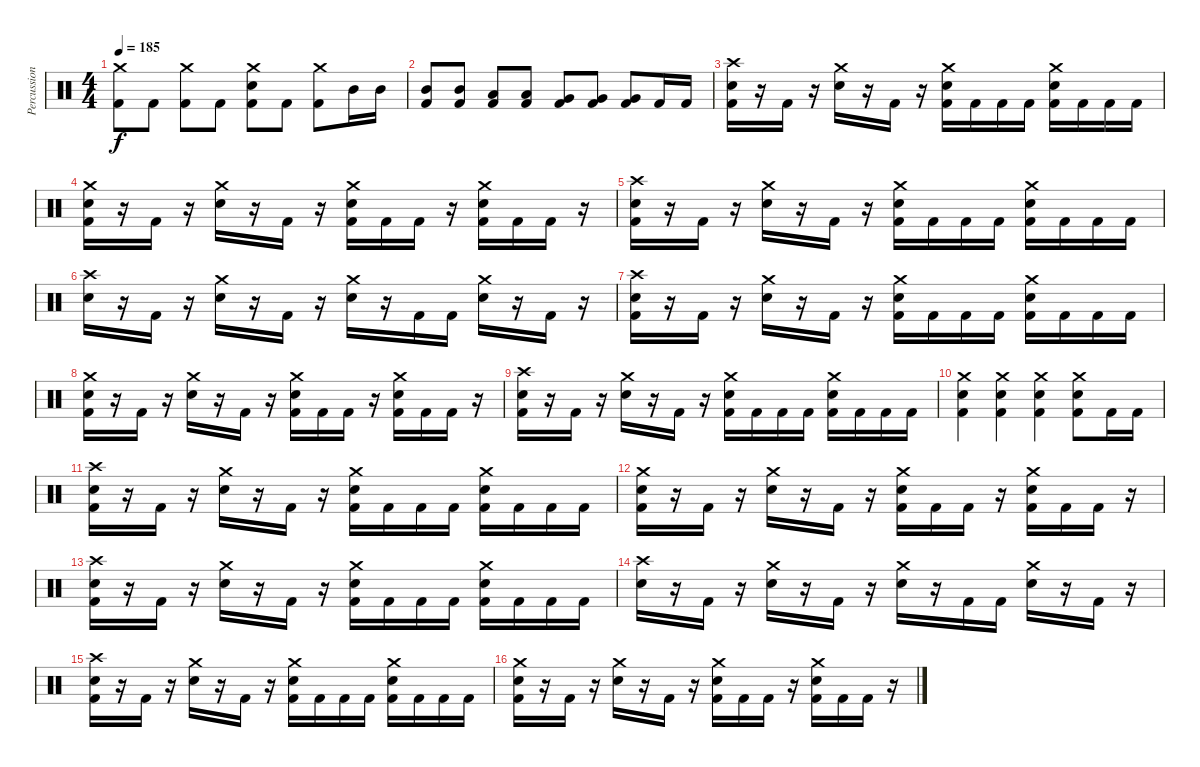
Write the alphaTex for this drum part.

\track ("Percussion" "Percussion") {instrument percussion}
\staff {score}
\articulation defaults
\ts (4 4)
\tempo 185
\clef neutral
\ks c
("Crash medium (hit)" "Kick (hit) 2").8{dy f} "Kick (hit) 2".8 ("Crash medium (hit)" "Kick (hit) 2").8 "Kick (hit) 2".8 ("Crash medium (hit)" "Snare (hit) 2" "Kick (hit) 2").8 "Kick (hit) 2".8 ("Crash medium (hit)" "Kick (hit) 2").8 "Mid Tom (hit)".16 "Mid Tom (hit)".16 |
("Mid Tom (hit)" "Kick (hit) 2").8 ("Mid Tom (hit)" "Kick (hit) 2").8 ("Low Tom (hit)" "Kick (hit) 2").8 ("Low Tom (hit)" "Kick (hit) 2").8 ("Very Low Tom (hit)" "Kick (hit) 2").8 ("Very Low Tom (hit)" "Kick (hit) 2").8 ("Very Low Tom (hit)" "Kick (hit) 2").8 "Kick (hit) 2".16 "Kick (hit) 2".16 |
("Crash high (hit)" "Snare (hit) 2" "Kick (hit) 2").16 r.16 "Kick (hit) 2".16 r.16 ("Crash medium (hit)" "Snare (hit) 2").16 r.16 "Kick (hit) 2".16 r.16 ("Crash medium (hit)" "Snare (hit) 2" "Kick (hit) 2").16 "Kick (hit) 2".16 "Kick (hit) 2".16 "Kick (hit) 2".16 ("Crash medium (hit)" "Snare (hit) 2" "Kick (hit) 2").16 "Kick (hit) 2".16 "Kick (hit) 2".16 "Kick (hit) 2".16 |
("Crash medium (hit)" "Snare (hit) 2" "Kick (hit) 2").16 r.16 "Kick (hit) 2".16 r.16 ("Crash medium (hit)" "Snare (hit) 2").16 r.16 "Kick (hit) 2".16 r.16 ("Crash medium (hit)" "Snare (hit) 2" "Kick (hit) 2").16 "Kick (hit) 2".16 "Kick (hit) 2".16 r.16 ("Crash medium (hit)" "Snare (hit) 2" "Kick (hit) 2").16 "Kick (hit) 2".16 "Kick (hit) 2".16 r.16 |
("Crash high (hit)" "Snare (hit) 2" "Kick (hit) 2").16 r.16 "Kick (hit) 2".16 r.16 ("Crash medium (hit)" "Snare (hit) 2").16 r.16 "Kick (hit) 2".16 r.16 ("Crash medium (hit)" "Snare (hit) 2" "Kick (hit) 2").16 "Kick (hit) 2".16 "Kick (hit) 2".16 "Kick (hit) 2".16 ("Crash medium (hit)" "Snare (hit) 2" "Kick (hit) 2").16 "Kick (hit) 2".16 "Kick (hit) 2".16 "Kick (hit) 2".16 |
("Crash high (hit)" "Snare (hit) 2").16 r.16 "Kick (hit) 2".16 r.16 ("Crash medium (hit)" "Snare (hit) 2").16 r.16 "Kick (hit) 2".16 r.16 ("Crash medium (hit)" "Snare (hit) 2").16 r.16 "Kick (hit) 2".16 "Kick (hit) 2".16 ("Crash medium (hit)" "Snare (hit) 2").16 r.16 "Kick (hit) 2".16 r.16 |
("Crash high (hit)" "Snare (hit) 2" "Kick (hit) 2").16 r.16 "Kick (hit) 2".16 r.16 ("Crash medium (hit)" "Snare (hit) 2").16 r.16 "Kick (hit) 2".16 r.16 ("Crash medium (hit)" "Snare (hit) 2" "Kick (hit) 2").16 "Kick (hit) 2".16 "Kick (hit) 2".16 "Kick (hit) 2".16 ("Crash medium (hit)" "Snare (hit) 2" "Kick (hit) 2").16 "Kick (hit) 2".16 "Kick (hit) 2".16 "Kick (hit) 2".16 |
("Crash medium (hit)" "Snare (hit) 2" "Kick (hit) 2").16 r.16 "Kick (hit) 2".16 r.16 ("Crash medium (hit)" "Snare (hit) 2").16 r.16 "Kick (hit) 2".16 r.16 ("Crash medium (hit)" "Snare (hit) 2" "Kick (hit) 2").16 "Kick (hit) 2".16 "Kick (hit) 2".16 r.16 ("Crash medium (hit)" "Snare (hit) 2" "Kick (hit) 2").16 "Kick (hit) 2".16 "Kick (hit) 2".16 r.16 |
("Crash high (hit)" "Snare (hit) 2" "Kick (hit) 2").16 r.16 "Kick (hit) 2".16 r.16 ("Crash medium (hit)" "Snare (hit) 2").16 r.16 "Kick (hit) 2".16 r.16 ("Crash medium (hit)" "Snare (hit) 2" "Kick (hit) 2").16 "Kick (hit) 2".16 "Kick (hit) 2".16 "Kick (hit) 2".16 ("Crash medium (hit)" "Snare (hit) 2" "Kick (hit) 2").16 "Kick (hit) 2".16 "Kick (hit) 2".16 "Kick (hit) 2".16 |
("Crash medium (hit)" "Snare (hit) 2" "Kick (hit) 2").4 ("Crash medium (hit)" "Snare (hit) 2" "Kick (hit) 2").4 ("Crash medium (hit)" "Snare (hit) 2" "Kick (hit) 2").4 ("Crash medium (hit)" "Snare (hit) 2" "Kick (hit) 2").8 "Kick (hit) 2".16 "Kick (hit) 2".16 |
("Crash high (hit)" "Snare (hit) 2" "Kick (hit) 2").16 r.16 "Kick (hit) 2".16 r.16 ("Crash medium (hit)" "Snare (hit) 2").16 r.16 "Kick (hit) 2".16 r.16 ("Crash medium (hit)" "Snare (hit) 2" "Kick (hit) 2").16 "Kick (hit) 2".16 "Kick (hit) 2".16 "Kick (hit) 2".16 ("Crash medium (hit)" "Snare (hit) 2" "Kick (hit) 2").16 "Kick (hit) 2".16 "Kick (hit) 2".16 "Kick (hit) 2".16 |
("Crash medium (hit)" "Snare (hit) 2" "Kick (hit) 2").16 r.16 "Kick (hit) 2".16 r.16 ("Crash medium (hit)" "Snare (hit) 2").16 r.16 "Kick (hit) 2".16 r.16 ("Crash medium (hit)" "Snare (hit) 2" "Kick (hit) 2").16 "Kick (hit) 2".16 "Kick (hit) 2".16 r.16 ("Crash medium (hit)" "Snare (hit) 2" "Kick (hit) 2").16 "Kick (hit) 2".16 "Kick (hit) 2".16 r.16 |
("Crash high (hit)" "Snare (hit) 2" "Kick (hit) 2").16 r.16 "Kick (hit) 2".16 r.16 ("Crash medium (hit)" "Snare (hit) 2").16 r.16 "Kick (hit) 2".16 r.16 ("Crash medium (hit)" "Snare (hit) 2" "Kick (hit) 2").16 "Kick (hit) 2".16 "Kick (hit) 2".16 "Kick (hit) 2".16 ("Crash medium (hit)" "Snare (hit) 2" "Kick (hit) 2").16 "Kick (hit) 2".16 "Kick (hit) 2".16 "Kick (hit) 2".16 |
("Crash high (hit)" "Snare (hit) 2").16 r.16 "Kick (hit) 2".16 r.16 ("Crash medium (hit)" "Snare (hit) 2").16 r.16 "Kick (hit) 2".16 r.16 ("Crash medium (hit)" "Snare (hit) 2").16 r.16 "Kick (hit) 2".16 "Kick (hit) 2".16 ("Crash medium (hit)" "Snare (hit) 2").16 r.16 "Kick (hit) 2".16 r.16 |
("Crash high (hit)" "Snare (hit) 2" "Kick (hit) 2").16 r.16 "Kick (hit) 2".16 r.16 ("Crash medium (hit)" "Snare (hit) 2").16 r.16 "Kick (hit) 2".16 r.16 ("Crash medium (hit)" "Snare (hit) 2" "Kick (hit) 2").16 "Kick (hit) 2".16 "Kick (hit) 2".16 "Kick (hit) 2".16 ("Crash medium (hit)" "Snare (hit) 2" "Kick (hit) 2").16 "Kick (hit) 2".16 "Kick (hit) 2".16 "Kick (hit) 2".16 |
("Crash medium (hit)" "Snare (hit) 2" "Kick (hit) 2").16 r.16 "Kick (hit) 2".16 r.16 ("Crash medium (hit)" "Snare (hit) 2").16 r.16 "Kick (hit) 2".16 r.16 ("Crash medium (hit)" "Snare (hit) 2" "Kick (hit) 2").16 "Kick (hit) 2".16 "Kick (hit) 2".16 r.16 ("Crash medium (hit)" "Snare (hit) 2" "Kick (hit) 2").16 "Kick (hit) 2".16 "Kick (hit) 2".16 r.16
